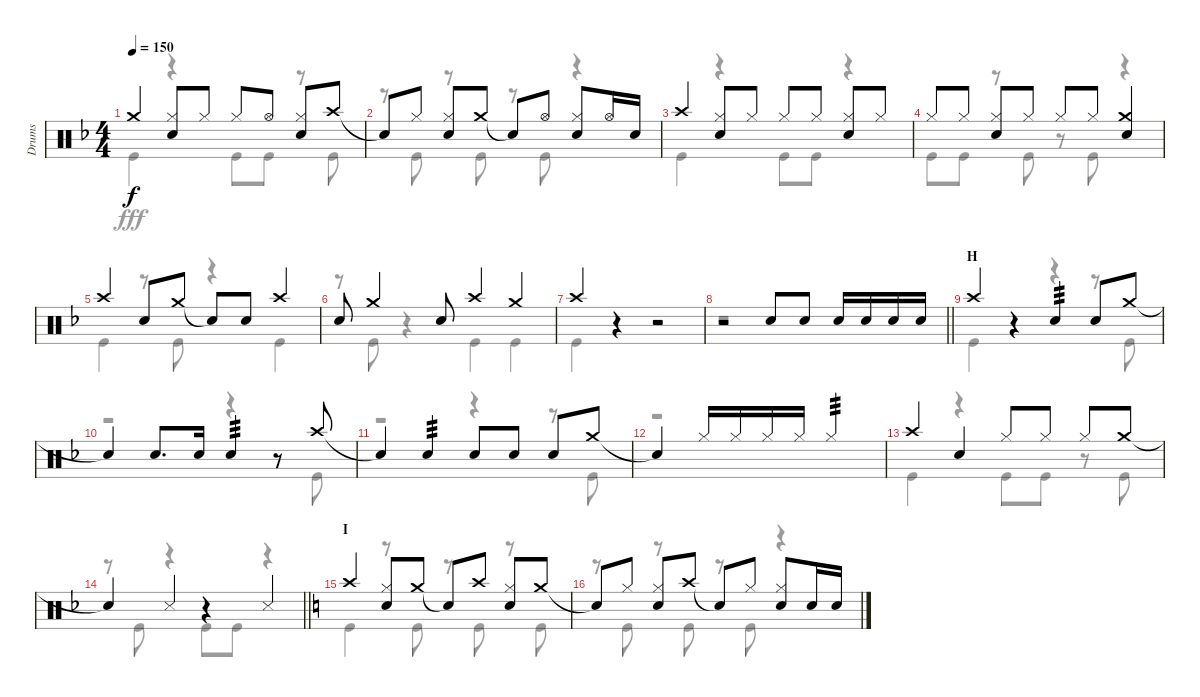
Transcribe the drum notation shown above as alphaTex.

\track ("Drums" "Drums") {instrument percussion}
\staff {score}
\articulation defaults
\voice
\ts (4 4)
\tempo 150
\clef neutral
\ks f "Crash medium (hit)".4{dy f}
("Hi-Hat (closed)" "Snare (hit) 2").8 "Hi-Hat (closed)".8 "Hi-Hat (closed)".8 "Hi-Hat (open)".8 ("Hi-Hat (closed)" "Snare (hit) 2").8 "Crash high (hit)".8 |
"Snare (hit)"{t}.8 "Hi-Hat (closed)".8 ("Hi-Hat (closed)" "Snare (hit) 2").8 "Crash medium (hit)".8 "Snare (hit)"{t}.8 "Hi-Hat (open)".8 ("Hi-Hat (closed)" "Snare (hit) 2").8 "Hi-Hat (open)".16 "Snare (hit) 2".16 |
"Crash high (hit)".4 ("Hi-Hat (closed)" "Snare (hit) 2").8 "Hi-Hat (closed)".8 "Hi-Hat (closed)".8 "Hi-Hat (closed)".8 ("Hi-Hat (closed)" "Snare (hit) 2").8 "Hi-Hat (closed)".8 |
"Hi-Hat (closed)".8 "Hi-Hat (closed)".8 ("Hi-Hat (closed)" "Snare (hit) 2").8 "Hi-Hat (closed)".8 "Hi-Hat (closed)".8 "Hi-Hat (closed)".8 ("Crash medium (hit)" "Snare (hit) 2").4 |
"Crash high (hit)".4 "Snare (hit) 2".8 "Crash medium (hit)".8 "Snare (hit)"{t}.8 "Snare (hit) 2".8 "Crash high (hit)".4 |
"Snare (hit) 2".8 "Crash medium (hit)".4 "Snare (hit) 2".8 "Crash high (hit)".4 "Crash medium (hit)".4 |
"Crash high (hit)".4 r.4 r.2 |
\barLineRight lightlight
r.2 "Snare (hit) 2".8 "Snare (hit) 2".8 "Snare (hit) 2".16 "Snare (hit) 2".16 "Snare (hit) 2".16 "Snare (hit) 2".16 |
\section ("" "H")
"Crash high (hit)".4 r.4 "Snare (hit) 2".4{tp 3} "Snare (hit) 2".8 "Crash medium (hit)".8 |
"Snare (hit)"{t}.4 "Snare (hit) 2".8{d} "Snare (hit) 2".16 "Snare (hit) 2".4{tp 3} r.8 "Crash high (hit)".8 |
"Snare (hit)"{t}.4 "Snare (hit) 2".4{tp 3} "Snare (hit) 2".8 "Snare (hit) 2".8 "Snare (hit) 2".8 "Crash medium (hit)".8 |
"Snare (hit)"{t}.4 "Hi-Hat (closed)".16 "Hi-Hat (closed)".16 "Hi-Hat (closed)".16 "Hi-Hat (closed)".16 "Hi-Hat (closed)".2{tp 3} |
"Crash high (hit)".4 "Snare (hit) 2".4 "Hi-Hat (closed)".8 "Hi-Hat (closed)".8 "Hi-Hat (closed)".8 "Crash medium (hit)".8 |
\barLineRight lightlight "Snare (hit)"{t}.4 "Snare (side stick) 3".4
r.4 "Snare (side stick) 3".4 |
\section ("" "I")
\ks c "Crash high (hit)".4
("Hi-Hat (closed)" "Snare (hit) 2").8 "Crash medium (hit)".8 "Snare (hit)"{t}.8 "Crash high (hit)".8 ("Hi-Hat (closed)" "Snare (hit) 2").8 "Crash medium (hit)".8 |
"Snare (hit)"{t}.8 "Hi-Hat (closed)".8 ("Hi-Hat (closed)" "Snare (hit) 2").8 "Crash high (hit)".8 "Snare (hit)"{t}.8 "Hi-Hat (closed)".8 ("Hi-Hat (closed)" "Snare (hit) 2").8 "Snare (hit) 2".16 "Snare (hit) 2".16
\voice
\clef neutral
\ottava regular
\simile none
\ks f "Kick (hit)".4{dy fff}
r.4 "Kick (hit)".8 "Kick (hit)".8 r.8 "Kick (hit)".8 |
r.8 "Kick (hit)".8 r.8 "Kick (hit)".8 r.8 "Kick (hit)".8 r.4 |
"Kick (hit)".4 r.4 "Kick (hit)".8 "Kick (hit)".8 r.4 |
"Kick (hit)".8 "Kick (hit)".8 r.8 "Kick (hit)".8 r.8 "Kick (hit)".8 r.4 |
"Kick (hit)".4 r.8 "Kick (hit)".8 r.4 "Kick (hit)".4 |
r.8 "Kick (hit)".8 r.4 "Kick (hit)".4 "Kick (hit)".4 |
"Kick (hit)".4 r.4 r.2 |
\barLineRight lightlight
r.1 |
"Kick (hit)".4 r.4 r.4 r.8 "Kick (hit)".8 |
r.2 r.4 r.8 "Kick (hit)".8 |
r.2 r.4 r.8 "Kick (hit)".8 |
r.1 |
"Kick (hit)".4 r.4 "Kick (hit)".8 "Kick (hit)".8 r.8 "Kick (hit)".8 |
\barLineRight lightlight
r.8 "Kick (hit)".8 r.4 "Kick (hit)".8 "Kick (hit)".8 r.4 |
\ks c "Kick (hit)".4
r.8 "Kick (hit)".8 r.8 "Kick (hit)".8 r.8 "Kick (hit)".8 |
r.8 "Kick (hit)".8 r.8 "Kick (hit)".8 r.8 "Kick (hit)".8 r.4
